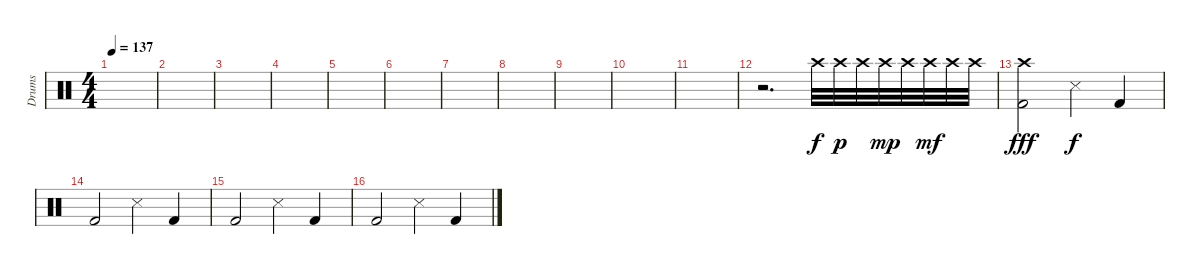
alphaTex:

\track ("Drums" "Drums") {instrument percussion}
\staff {score}
\articulation defaults
\ts (4 4)
\tempo 137
\clef neutral
\ks c
|
|
|
|
|
|
|
|
|
|
|
r.2{d} "Crash high (hit)".32 "Crash high (hit)".32{dy p} "Crash high (hit)".32 "Crash high (hit)".32{dy mp} "Crash high (hit)".32 "Crash high (hit)".32{dy mf} "Crash high (hit)".32 "Crash high (hit)".32 |
("Crash high (hit)" "Kick (hit) 2").2{dy fff} "Snare (side stick) 3".4{dy f} "Kick (hit) 2".4 |
"Kick (hit) 2".2 "Snare (side stick) 3".4 "Kick (hit) 2".4 |
"Kick (hit) 2".2 "Snare (side stick) 3".4 "Kick (hit) 2".4 |
"Kick (hit) 2".2 "Snare (side stick) 3".4 "Kick (hit) 2".4
